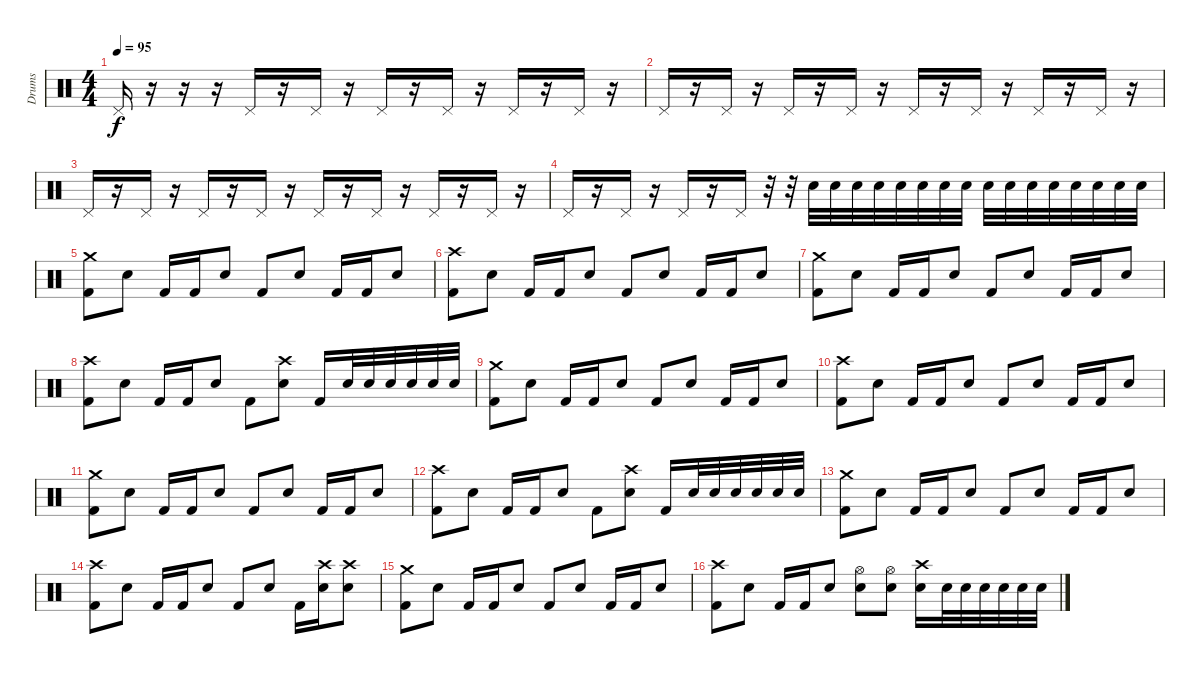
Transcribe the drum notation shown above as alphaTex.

\track ("Drums" "Drums") {instrument percussion}
\staff {score}
\articulation defaults
\ts (4 4)
\tempo 95
\clef neutral
\ks c "Pedal Hi-Hat (hit)".16{dy f}
r.16 r.16 r.16 "Pedal Hi-Hat (hit)".16 r.16 "Pedal Hi-Hat (hit)".16 r.16 "Pedal Hi-Hat (hit)".16 r.16 "Pedal Hi-Hat (hit)".16 r.16 "Pedal Hi-Hat (hit)".16 r.16 "Pedal Hi-Hat (hit)".16 r.16 |
"Pedal Hi-Hat (hit)".16 r.16 "Pedal Hi-Hat (hit)".16 r.16 "Pedal Hi-Hat (hit)".16 r.16 "Pedal Hi-Hat (hit)".16 r.16 "Pedal Hi-Hat (hit)".16 r.16 "Pedal Hi-Hat (hit)".16 r.16 "Pedal Hi-Hat (hit)".16 r.16 "Pedal Hi-Hat (hit)".16 r.16 |
"Pedal Hi-Hat (hit)".16 r.16 "Pedal Hi-Hat (hit)".16 r.16 "Pedal Hi-Hat (hit)".16 r.16 "Pedal Hi-Hat (hit)".16 r.16 "Pedal Hi-Hat (hit)".16 r.16 "Pedal Hi-Hat (hit)".16 r.16 "Pedal Hi-Hat (hit)".16 r.16 "Pedal Hi-Hat (hit)".16 r.16 |
"Pedal Hi-Hat (hit)".16 r.16 "Pedal Hi-Hat (hit)".16 r.16 "Pedal Hi-Hat (hit)".16 r.16 "Pedal Hi-Hat (hit)".16 r.32 r.32 "Electric Snare (hit)".32 "Electric Snare (hit)".32 "Electric Snare (hit)".32 "Electric Snare (hit)".32 "Electric Snare (hit)".32 "Electric Snare (hit)".32 "Electric Snare (hit)".32 "Electric Snare (hit)".32 "Electric Snare (hit)".32 "Electric Snare (hit)".32 "Electric Snare (hit)".32 "Electric Snare (hit)".32 "Electric Snare (hit)".32 "Electric Snare (hit)".32 "Electric Snare (hit)".32 "Electric Snare (hit)".32 |
("Crash medium (hit)" "Kick (hit) 2").8 "Electric Snare (hit)".8 "Kick (hit) 2".16 "Kick (hit) 2".16 "Electric Snare (hit)".8 "Kick (hit) 2".8 "Electric Snare (hit)".8 "Kick (hit) 2".16 "Kick (hit) 2".16 "Electric Snare (hit)".8 |
("Crash high (hit)" "Kick (hit) 2").8 "Electric Snare (hit)".8 "Kick (hit) 2".16 "Kick (hit) 2".16 "Electric Snare (hit)".8 "Kick (hit) 2".8 "Electric Snare (hit)".8 "Kick (hit) 2".16 "Kick (hit) 2".16 "Electric Snare (hit)".8 |
("Crash medium (hit)" "Kick (hit) 2").8 "Electric Snare (hit)".8 "Kick (hit) 2".16 "Kick (hit) 2".16 "Electric Snare (hit)".8 "Kick (hit) 2".8 "Electric Snare (hit)".8 "Kick (hit) 2".16 "Kick (hit) 2".16 "Electric Snare (hit)".8 |
("Crash high (hit)" "Kick (hit) 2").8 "Electric Snare (hit)".8 "Kick (hit) 2".16 "Kick (hit) 2".16 "Electric Snare (hit)".8 "Kick (hit) 2".8 ("Crash high (hit)" "Electric Snare (hit)").8 "Kick (hit) 2".16 "Electric Snare (hit)".32 "Electric Snare (hit)".32 "Electric Snare (hit)".32 "Electric Snare (hit)".32 "Electric Snare (hit)".32 "Electric Snare (hit)".32 |
("Crash medium (hit)" "Kick (hit) 2").8 "Electric Snare (hit)".8 "Kick (hit) 2".16 "Kick (hit) 2".16 "Electric Snare (hit)".8 "Kick (hit) 2".8 "Electric Snare (hit)".8 "Kick (hit) 2".16 "Kick (hit) 2".16 "Electric Snare (hit)".8 |
("Crash high (hit)" "Kick (hit) 2").8 "Electric Snare (hit)".8 "Kick (hit) 2".16 "Kick (hit) 2".16 "Electric Snare (hit)".8 "Kick (hit) 2".8 "Electric Snare (hit)".8 "Kick (hit) 2".16 "Kick (hit) 2".16 "Electric Snare (hit)".8 |
("Crash medium (hit)" "Kick (hit) 2").8 "Electric Snare (hit)".8 "Kick (hit) 2".16 "Kick (hit) 2".16 "Electric Snare (hit)".8 "Kick (hit) 2".8 "Electric Snare (hit)".8 "Kick (hit) 2".16 "Kick (hit) 2".16 "Electric Snare (hit)".8 |
("Crash high (hit)" "Kick (hit) 2").8 "Electric Snare (hit)".8 "Kick (hit) 2".16 "Kick (hit) 2".16 "Electric Snare (hit)".8 "Kick (hit) 2".8 ("Crash high (hit)" "Electric Snare (hit)").8 "Kick (hit) 2".16 "Electric Snare (hit)".32 "Electric Snare (hit)".32 "Electric Snare (hit)".32 "Electric Snare (hit)".32 "Electric Snare (hit)".32 "Electric Snare (hit)".32 |
("Crash medium (hit)" "Kick (hit) 2").8 "Electric Snare (hit)".8 "Kick (hit) 2".16 "Kick (hit) 2".16 "Electric Snare (hit)".8 "Kick (hit) 2".8 "Electric Snare (hit)".8 "Kick (hit) 2".16 "Kick (hit) 2".16 "Electric Snare (hit)".8 |
("Crash high (hit)" "Kick (hit) 2").8 "Electric Snare (hit)".8 "Kick (hit) 2".16 "Kick (hit) 2".16 "Electric Snare (hit)".8 "Kick (hit) 2".8 "Electric Snare (hit)".8 "Kick (hit) 2".16 ("Crash high (hit)" "Electric Snare (hit)").16 ("Crash high (hit)" "Electric Snare (hit)").8 |
("Crash medium (hit)" "Kick (hit) 2").8 "Electric Snare (hit)".8 "Kick (hit) 2".16 "Kick (hit) 2".16 "Electric Snare (hit)".8 "Kick (hit) 2".8 "Electric Snare (hit)".8 "Kick (hit) 2".16 "Kick (hit) 2".16 "Electric Snare (hit)".8 |
("Crash high (hit)" "Kick (hit) 2").8 "Electric Snare (hit)".8 "Kick (hit) 2".16 "Kick (hit) 2".16 "Electric Snare (hit)".8 ("Hi-Hat (open)" "Electric Snare (hit)").8 ("Hi-Hat (open)" "Electric Snare (hit)").8 ("Crash high (hit)" "Electric Snare (hit)").16 "Electric Snare (hit)".32 "Electric Snare (hit)".32 "Electric Snare (hit)".32 "Electric Snare (hit)".32 "Electric Snare (hit)".32 "Electric Snare (hit)".32
